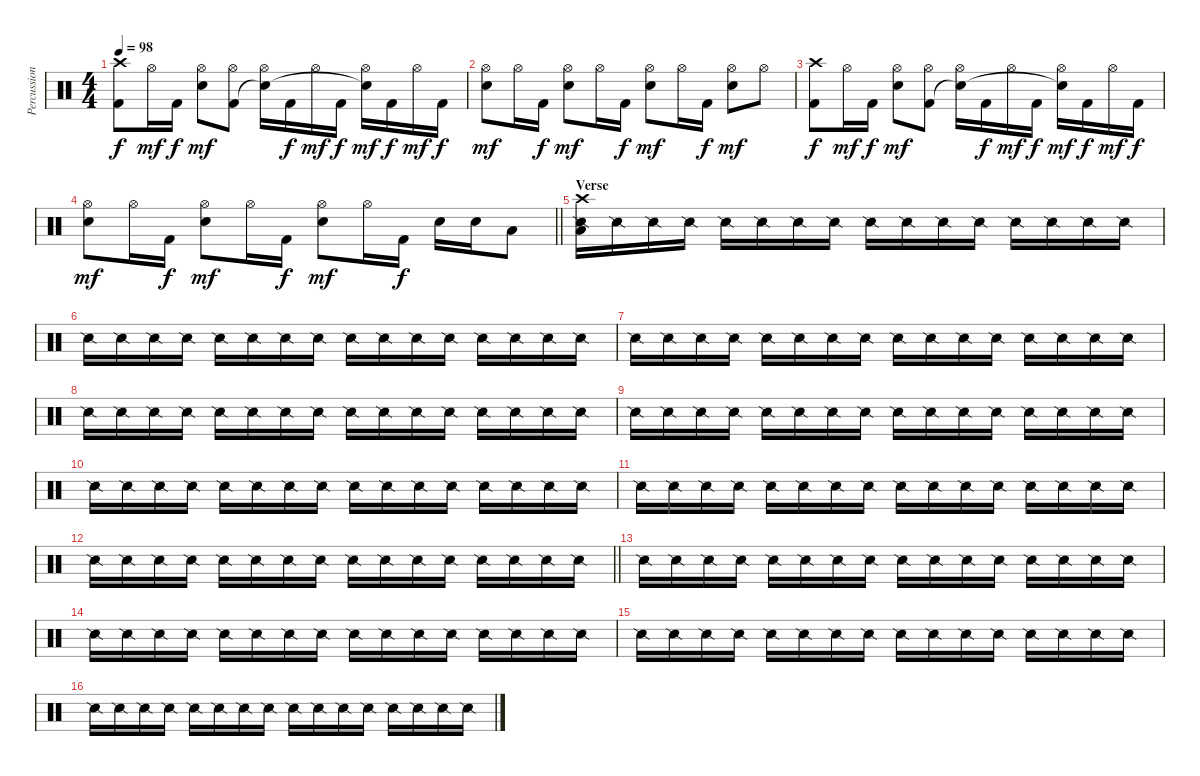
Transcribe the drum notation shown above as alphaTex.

\track ("Percussion" "Percussion") {instrument percussion}
\staff {score}
\articulation defaults
\ts (4 4)
\tempo 98
\clef neutral
\ks c
("Crash high (hit)" "Kick (hit) 2").8{dy f} "Hi-Hat (open)".16{dy mf} "Kick (hit) 2".16{dy f} ("Hi-Hat (open)" "Electric Snare (hit)").8{dy mf} ("Hi-Hat (open)" "Kick (hit) 2").8 ("Hi-Hat (open)" "Snare (hit)"{t}).16 "Kick (hit) 2".16{dy f} "Hi-Hat (open)".16{dy mf} "Kick (hit) 2".16{dy f} ("Hi-Hat (open)" "Snare (hit)"{t}).16{dy mf} "Kick (hit) 2".16{dy f} "Hi-Hat (open)".16{dy mf} "Kick (hit) 2".16{dy f} |
("Hi-Hat (open)" "Electric Snare (hit)").8{dy mf} "Hi-Hat (open)".16 "Kick (hit) 2".16{dy f} ("Hi-Hat (open)" "Electric Snare (hit)").8{dy mf} "Hi-Hat (open)".16 "Kick (hit) 2".16{dy f} ("Hi-Hat (open)" "Electric Snare (hit)").8{dy mf} "Hi-Hat (open)".16 "Kick (hit) 2".16{dy f} ("Hi-Hat (open)" "Electric Snare (hit)").8{dy mf} "Hi-Hat (open)".8 |
("Crash high (hit)" "Kick (hit) 2").8{dy f} "Hi-Hat (open)".16{dy mf} "Kick (hit) 2".16{dy f} ("Hi-Hat (open)" "Electric Snare (hit)").8{dy mf} ("Hi-Hat (open)" "Kick (hit) 2").8 ("Hi-Hat (open)" "Snare (hit)"{t}).16 "Kick (hit) 2".16{dy f} "Hi-Hat (open)".16{dy mf} "Kick (hit) 2".16{dy f} ("Hi-Hat (open)" "Snare (hit)"{t}).16{dy mf} "Kick (hit) 2".16{dy f} "Hi-Hat (open)".16{dy mf} "Kick (hit) 2".16{dy f} |
\barLineRight lightlight
("Hi-Hat (open)" "Electric Snare (hit)").8{dy mf} "Hi-Hat (open)".16 "Kick (hit) 2".16{dy f} ("Hi-Hat (open)" "Electric Snare (hit)").8{dy mf} "Hi-Hat (open)".16 "Kick (hit) 2".16{dy f} ("Hi-Hat (open)" "Electric Snare (hit)").8{dy mf} "Hi-Hat (open)".16 "Kick (hit) 2".16{dy f} "Electric Snare (hit)".16 "Electric Snare (hit)".16 "Low Tom (hit)".8 |
\section ("" "Verse")
("Crash high (hit)" "Low Floor Tom (hit)" "Snare (side stick) 2").16 "Snare (side stick) 2".16 "Snare (side stick) 2".16 "Snare (side stick) 2".16 "Snare (side stick) 2".16 "Snare (side stick) 2".16 "Snare (side stick) 2".16 "Snare (side stick) 2".16 "Snare (side stick) 2".16 "Snare (side stick) 2".16 "Snare (side stick) 2".16 "Snare (side stick) 2".16 "Snare (side stick) 2".16 "Snare (side stick) 2".16 "Snare (side stick) 2".16 "Snare (side stick) 2".16 |
"Snare (side stick) 2".16 "Snare (side stick) 2".16 "Snare (side stick) 2".16 "Snare (side stick) 2".16 "Snare (side stick) 2".16 "Snare (side stick) 2".16 "Snare (side stick) 2".16 "Snare (side stick) 2".16 "Snare (side stick) 2".16 "Snare (side stick) 2".16 "Snare (side stick) 2".16 "Snare (side stick) 2".16 "Snare (side stick) 2".16 "Snare (side stick) 2".16 "Snare (side stick) 2".16 "Snare (side stick) 2".16 |
"Snare (side stick) 2".16 "Snare (side stick) 2".16 "Snare (side stick) 2".16 "Snare (side stick) 2".16 "Snare (side stick) 2".16 "Snare (side stick) 2".16 "Snare (side stick) 2".16 "Snare (side stick) 2".16 "Snare (side stick) 2".16 "Snare (side stick) 2".16 "Snare (side stick) 2".16 "Snare (side stick) 2".16 "Snare (side stick) 2".16 "Snare (side stick) 2".16 "Snare (side stick) 2".16 "Snare (side stick) 2".16 |
"Snare (side stick) 2".16 "Snare (side stick) 2".16 "Snare (side stick) 2".16 "Snare (side stick) 2".16 "Snare (side stick) 2".16 "Snare (side stick) 2".16 "Snare (side stick) 2".16 "Snare (side stick) 2".16 "Snare (side stick) 2".16 "Snare (side stick) 2".16 "Snare (side stick) 2".16 "Snare (side stick) 2".16 "Snare (side stick) 2".16 "Snare (side stick) 2".16 "Snare (side stick) 2".16 "Snare (side stick) 2".16 |
"Snare (side stick) 2".16 "Snare (side stick) 2".16 "Snare (side stick) 2".16 "Snare (side stick) 2".16 "Snare (side stick) 2".16 "Snare (side stick) 2".16 "Snare (side stick) 2".16 "Snare (side stick) 2".16 "Snare (side stick) 2".16 "Snare (side stick) 2".16 "Snare (side stick) 2".16 "Snare (side stick) 2".16 "Snare (side stick) 2".16 "Snare (side stick) 2".16 "Snare (side stick) 2".16 "Snare (side stick) 2".16 |
"Snare (side stick) 2".16 "Snare (side stick) 2".16 "Snare (side stick) 2".16 "Snare (side stick) 2".16 "Snare (side stick) 2".16 "Snare (side stick) 2".16 "Snare (side stick) 2".16 "Snare (side stick) 2".16 "Snare (side stick) 2".16 "Snare (side stick) 2".16 "Snare (side stick) 2".16 "Snare (side stick) 2".16 "Snare (side stick) 2".16 "Snare (side stick) 2".16 "Snare (side stick) 2".16 "Snare (side stick) 2".16 |
"Snare (side stick) 2".16 "Snare (side stick) 2".16 "Snare (side stick) 2".16 "Snare (side stick) 2".16 "Snare (side stick) 2".16 "Snare (side stick) 2".16 "Snare (side stick) 2".16 "Snare (side stick) 2".16 "Snare (side stick) 2".16 "Snare (side stick) 2".16 "Snare (side stick) 2".16 "Snare (side stick) 2".16 "Snare (side stick) 2".16 "Snare (side stick) 2".16 "Snare (side stick) 2".16 "Snare (side stick) 2".16 |
\barLineRight lightlight "Snare (side stick) 2".16 "Snare (side stick) 2".16 "Snare (side stick) 2".16 "Snare (side stick) 2".16 "Snare (side stick) 2".16 "Snare (side stick) 2".16 "Snare (side stick) 2".16 "Snare (side stick) 2".16 "Snare (side stick) 2".16 "Snare (side stick) 2".16 "Snare (side stick) 2".16 "Snare (side stick) 2".16 "Snare (side stick) 2".16 "Snare (side stick) 2".16 "Snare (side stick) 2".16 "Snare (side stick) 2".16
|
"Snare (side stick) 2".16 "Snare (side stick) 2".16 "Snare (side stick) 2".16 "Snare (side stick) 2".16 "Snare (side stick) 2".16 "Snare (side stick) 2".16 "Snare (side stick) 2".16 "Snare (side stick) 2".16 "Snare (side stick) 2".16 "Snare (side stick) 2".16 "Snare (side stick) 2".16 "Snare (side stick) 2".16 "Snare (side stick) 2".16 "Snare (side stick) 2".16 "Snare (side stick) 2".16 "Snare (side stick) 2".16 |
"Snare (side stick) 2".16 "Snare (side stick) 2".16 "Snare (side stick) 2".16 "Snare (side stick) 2".16 "Snare (side stick) 2".16 "Snare (side stick) 2".16 "Snare (side stick) 2".16 "Snare (side stick) 2".16 "Snare (side stick) 2".16 "Snare (side stick) 2".16 "Snare (side stick) 2".16 "Snare (side stick) 2".16 "Snare (side stick) 2".16 "Snare (side stick) 2".16 "Snare (side stick) 2".16 "Snare (side stick) 2".16 |
"Snare (side stick) 2".16 "Snare (side stick) 2".16 "Snare (side stick) 2".16 "Snare (side stick) 2".16 "Snare (side stick) 2".16 "Snare (side stick) 2".16 "Snare (side stick) 2".16 "Snare (side stick) 2".16 "Snare (side stick) 2".16 "Snare (side stick) 2".16 "Snare (side stick) 2".16 "Snare (side stick) 2".16 "Snare (side stick) 2".16 "Snare (side stick) 2".16 "Snare (side stick) 2".16 "Snare (side stick) 2".16 |
"Snare (side stick) 2".16 "Snare (side stick) 2".16 "Snare (side stick) 2".16 "Snare (side stick) 2".16 "Snare (side stick) 2".16 "Snare (side stick) 2".16 "Snare (side stick) 2".16 "Snare (side stick) 2".16 "Snare (side stick) 2".16 "Snare (side stick) 2".16 "Snare (side stick) 2".16 "Snare (side stick) 2".16 "Snare (side stick) 2".16 "Snare (side stick) 2".16 "Snare (side stick) 2".16 "Snare (side stick) 2".16
